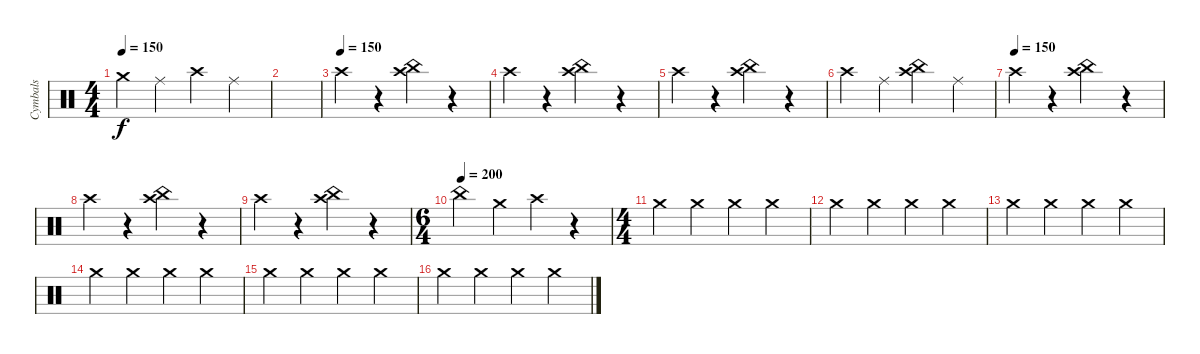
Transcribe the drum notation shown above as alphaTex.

\track ("Cymbals" "Cymbals") {instrument percussion}
\staff {score}
\articulation defaults
\ts (4 4)
\tempo 150
\clef neutral
\ks c "Crash medium (hit)".4{dy f} "Ride (middle)".4 "Crash high (hit)".4 "Ride (middle)".4
|
|
\tempo (150)
"Crash high (hit)".4 r.4 ("China (hit)" "Crash high (hit)").4 r.4 |
"Crash high (hit)".4 r.4 ("China (hit)" "Crash high (hit)").4 r.4 |
"Crash high (hit)".4 r.4 ("China (hit)" "Crash high (hit)").4 r.4 |
"Crash high (hit)".4 "Ride (middle)".4 ("China (hit)" "Crash high (hit)").4 "Ride (middle)".4 |
\tempo (150)
"Crash high (hit)".4 r.4 ("China (hit)" "Crash high (hit)").4 r.4 |
"Crash high (hit)".4 r.4 ("China (hit)" "Crash high (hit)").4 r.4 |
"Crash high (hit)".4 r.4 ("China (hit)" "Crash high (hit)").4 r.4 |
\ts (6 4)
\tempo (200)
"China (hit)".4 "Crash medium (hit)".4 "Crash high (hit)".4 r.4 |
\ts (4 4)
"Crash medium (hit)".4 "Crash medium (hit)".4 "Crash medium (hit)".4 "Crash medium (hit)".4 |
"Crash medium (hit)".4 "Crash medium (hit)".4 "Crash medium (hit)".4 "Crash medium (hit)".4 |
"Crash medium (hit)".4 "Crash medium (hit)".4 "Crash medium (hit)".4 "Crash medium (hit)".4 |
"Crash medium (hit)".4 "Crash medium (hit)".4 "Crash medium (hit)".4 "Crash medium (hit)".4 |
"Crash medium (hit)".4 "Crash medium (hit)".4 "Crash medium (hit)".4 "Crash medium (hit)".4 |
"Crash medium (hit)".4 "Crash medium (hit)".4 "Crash medium (hit)".4 "Crash medium (hit)".4
